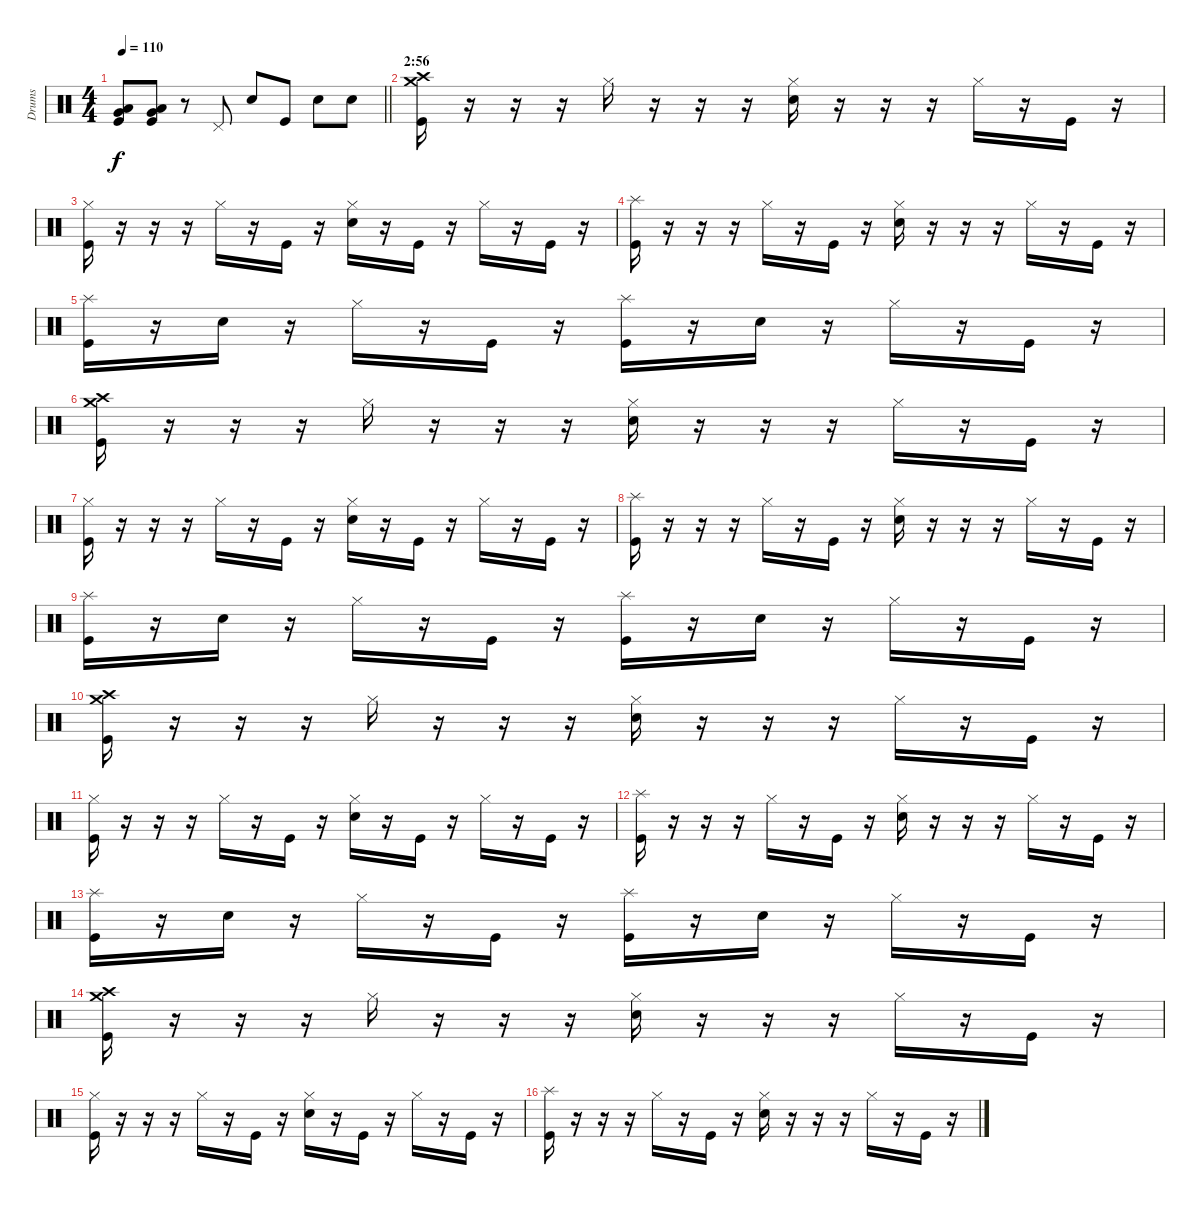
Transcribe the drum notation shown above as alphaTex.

\track ("Drums" "Drums") {instrument percussion}
\staff {score}
\articulation defaults
\ts (4 4)
\tempo 110
\clef neutral
\barLineRight lightlight
\ks c
("Very Low Tom (hit)" "Low Tom (hit)" "Kick (hit)").8{dy f} ("Very Low Tom (hit)" "Low Tom (hit)" "Kick (hit)").8 r.8 "Pedal Hi-Hat (hit)".8 "Snare (hit) 2".8 "Kick (hit)".8 "Snare (hit) 2".8 "Snare (hit) 2".8 |
\section ("" "2:56")
("Crash high (hit)" "Crash medium (hit)" "Kick (hit)").16 r.16 r.16 r.16 "Hi-Hat (closed)".16 r.16 r.16 r.16 ("Hi-Hat (closed)" "Snare (hit) 2").16 r.16 r.16 r.16 "Hi-Hat (closed)".16 r.16 "Kick (hit)".16 r.16 |
("Hi-Hat (closed)" "Kick (hit)").16 r.16 r.16 r.16 "Hi-Hat (closed)".16 r.16 "Kick (hit)".16 r.16 ("Hi-Hat (closed)" "Snare (hit) 2").16 r.16 "Kick (hit)".16 r.16 "Hi-Hat (closed)".16 r.16 "Kick (hit)".16 r.16 |
("Splash (hit)" "Kick (hit)").16 r.16 r.16 r.16 "Hi-Hat (closed)".16 r.16 "Kick (hit)".16 r.16 ("Hi-Hat (closed)" "Snare (hit) 2").16 r.16 r.16 r.16 "Hi-Hat (closed)".16 r.16 "Kick (hit)".16 r.16 |
("Splash (hit)" "Kick (hit)").16 r.16 "Snare (hit) 2".16 r.16 "Hi-Hat (closed)".16 r.16 "Kick (hit)".16 r.16 ("Splash (hit)" "Kick (hit)").16 r.16 "Snare (hit) 2".16 r.16 "Hi-Hat (closed)".16 r.16 "Kick (hit)".16 r.16 |
("Crash high (hit)" "Crash medium (hit)" "Kick (hit)").16 r.16 r.16 r.16 "Hi-Hat (closed)".16 r.16 r.16 r.16 ("Hi-Hat (closed)" "Snare (hit) 2").16 r.16 r.16 r.16 "Hi-Hat (closed)".16 r.16 "Kick (hit)".16 r.16 |
("Hi-Hat (closed)" "Kick (hit)").16 r.16 r.16 r.16 "Hi-Hat (closed)".16 r.16 "Kick (hit)".16 r.16 ("Hi-Hat (closed)" "Snare (hit) 2").16 r.16 "Kick (hit)".16 r.16 "Hi-Hat (closed)".16 r.16 "Kick (hit)".16 r.16 |
("Splash (hit)" "Kick (hit)").16 r.16 r.16 r.16 "Hi-Hat (closed)".16 r.16 "Kick (hit)".16 r.16 ("Hi-Hat (closed)" "Snare (hit) 2").16 r.16 r.16 r.16 "Hi-Hat (closed)".16 r.16 "Kick (hit)".16 r.16 |
("Splash (hit)" "Kick (hit)").16 r.16 "Snare (hit) 2".16 r.16 "Hi-Hat (closed)".16 r.16 "Kick (hit)".16 r.16 ("Splash (hit)" "Kick (hit)").16 r.16 "Snare (hit) 2".16 r.16 "Hi-Hat (closed)".16 r.16 "Kick (hit)".16 r.16 |
("Crash high (hit)" "Crash medium (hit)" "Kick (hit)").16 r.16 r.16 r.16 "Hi-Hat (closed)".16 r.16 r.16 r.16 ("Hi-Hat (closed)" "Snare (hit) 2").16 r.16 r.16 r.16 "Hi-Hat (closed)".16 r.16 "Kick (hit)".16 r.16 |
("Hi-Hat (closed)" "Kick (hit)").16 r.16 r.16 r.16 "Hi-Hat (closed)".16 r.16 "Kick (hit)".16 r.16 ("Hi-Hat (closed)" "Snare (hit) 2").16 r.16 "Kick (hit)".16 r.16 "Hi-Hat (closed)".16 r.16 "Kick (hit)".16 r.16 |
("Splash (hit)" "Kick (hit)").16 r.16 r.16 r.16 "Hi-Hat (closed)".16 r.16 "Kick (hit)".16 r.16 ("Hi-Hat (closed)" "Snare (hit) 2").16 r.16 r.16 r.16 "Hi-Hat (closed)".16 r.16 "Kick (hit)".16 r.16 |
("Splash (hit)" "Kick (hit)").16 r.16 "Snare (hit) 2".16 r.16 "Hi-Hat (closed)".16 r.16 "Kick (hit)".16 r.16 ("Splash (hit)" "Kick (hit)").16 r.16 "Snare (hit) 2".16 r.16 "Hi-Hat (closed)".16 r.16 "Kick (hit)".16 r.16 |
("Crash high (hit)" "Crash medium (hit)" "Kick (hit)").16 r.16 r.16 r.16 "Hi-Hat (closed)".16 r.16 r.16 r.16 ("Hi-Hat (closed)" "Snare (hit) 2").16 r.16 r.16 r.16 "Hi-Hat (closed)".16 r.16 "Kick (hit)".16 r.16 |
("Hi-Hat (closed)" "Kick (hit)").16 r.16 r.16 r.16 "Hi-Hat (closed)".16 r.16 "Kick (hit)".16 r.16 ("Hi-Hat (closed)" "Snare (hit) 2").16 r.16 "Kick (hit)".16 r.16 "Hi-Hat (closed)".16 r.16 "Kick (hit)".16 r.16 |
("Splash (hit)" "Kick (hit)").16 r.16 r.16 r.16 "Hi-Hat (closed)".16 r.16 "Kick (hit)".16 r.16 ("Hi-Hat (closed)" "Snare (hit) 2").16 r.16 r.16 r.16 "Hi-Hat (closed)".16 r.16 "Kick (hit)".16 r.16
